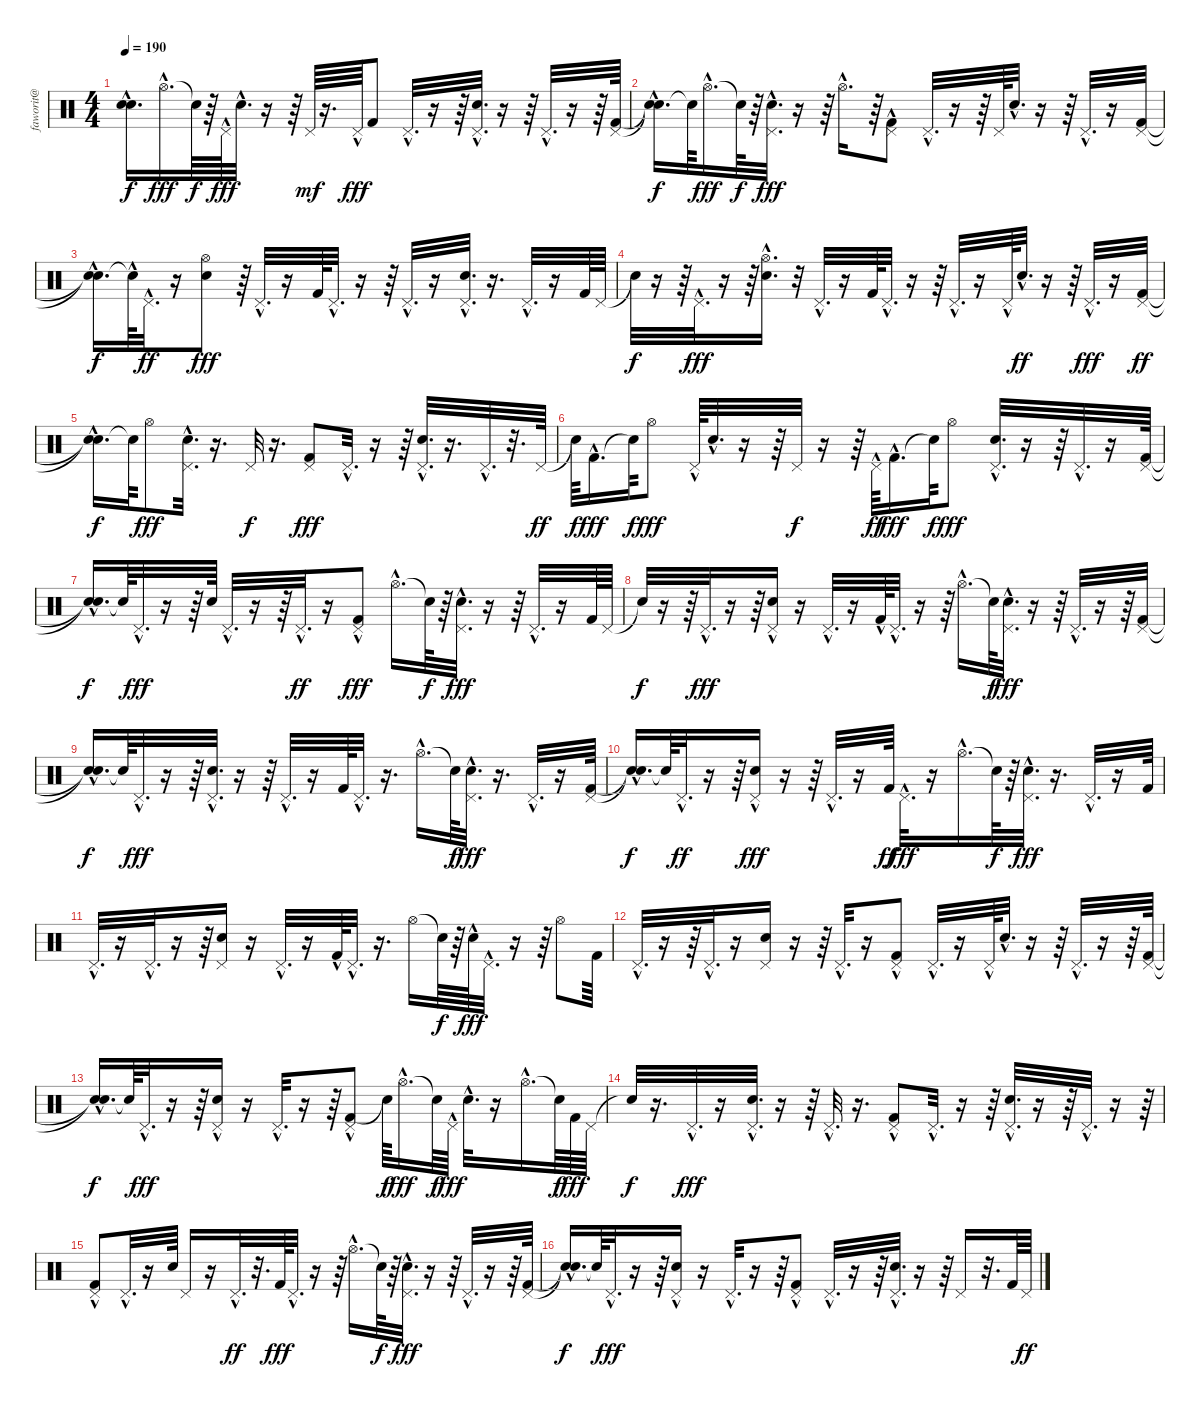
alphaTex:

\track ("faworit@" "faworit@") {instrument percussion}
\staff {score}
\articulation defaults
\ts (4 4)
\tempo 190
\clef neutral
\ks c
("Snare (hit)"{hac t} "Snare (hit)"{t}).16{d dy f} "Hi-Hat (open)"{hac}.16{d dy fff} "Snare (hit)"{t}.64{dy f} r.64 "Pedal Hi-Hat (hit)"{hac}.64{dy fff} "Snare (hit) 2"{hac}.32{d} r.16 r.64 "Pedal Hi-Hat (hit)".64{dy mf} r.16{d} "Pedal Hi-Hat (hit)"{hac}.64{dy fff} "Kick (hit) 2".8 "Pedal Hi-Hat (hit)"{hac}.32{d} r.16 r.64 ("Snare (hit) 2"{hac} "Pedal Hi-Hat (hit)"{hac}).32{d} r.16 r.64 "Pedal Hi-Hat (hit)"{hac}.32{d} r.16 r.64 ("Kick (hit) 2" "Pedal Hi-Hat (hit)").64 |
("Snare (hit)"{hac t} "Snare (hit)"{t}).16{d dy f} "Snare (hit)"{t}.64 "Hi-Hat (open)"{hac}.16{d dy fff} "Snare (hit)"{t}.64{dy f} r.64 ("Pedal Hi-Hat (hit)"{hac} "Snare (hit) 2"{hac}).32{d dy fff} r.16 r.64 "Hi-Hat (open)"{hac}.16{d} r.64 ("Kick (hit) 2" "Pedal Hi-Hat (hit)"{hac}).8 "Pedal Hi-Hat (hit)"{hac}.32{d} r.16 r.64 "Pedal Hi-Hat (hit)".64 "Snare (hit) 2"{hac}.32{d} r.16 r.64 "Pedal Hi-Hat (hit)"{hac}.32{d} r.16 ("Kick (hit) 2" "Pedal Hi-Hat (hit)").32 |
("Snare (hit)"{hac t} "Snare (hit)"{t}).16{d dy f} "Snare (hit)"{hac t}.64 "Pedal Hi-Hat (hit)"{hac}.32{d dy ff} r.16 ("Hi-Hat (open)" "Snare (hit) 2").8{dy fff} r.64 "Pedal Hi-Hat (hit)"{hac}.32{d} r.16 "Kick (hit) 2".64 "Pedal Hi-Hat (hit)"{hac}.32{d} r.16 r.64 "Pedal Hi-Hat (hit)"{hac}.32{d} r.16 ("Snare (hit) 2"{hac} "Pedal Hi-Hat (hit)"{hac}).32{d} r.16{d} "Pedal Hi-Hat (hit)"{hac}.32{d} r.16 "Kick (hit) 2".64 "Pedal Hi-Hat (hit)".64 |
"Snare (hit)"{t}.32{dy f} r.16 r.64 "Pedal Hi-Hat (hit)"{hac}.32{d dy fff} r.16 r.64 ("Snare (hit) 2"{hac} "Hi-Hat (open)"{hac}).16{d} r.32 "Pedal Hi-Hat (hit)"{hac}.32{d} r.16 "Kick (hit) 2".64 "Pedal Hi-Hat (hit)"{hac}.32{d} r.16 r.64 "Pedal Hi-Hat (hit)"{hac}.32{d} r.16 "Pedal Hi-Hat (hit)"{hac}.64 "Snare (hit) 2"{hac}.32{d dy ff} r.16 r.64 "Pedal Hi-Hat (hit)"{hac}.32{d dy fff} r.16 ("Kick (hit) 2" "Pedal Hi-Hat (hit)").32{dy ff} |
("Snare (hit)"{hac t} "Snare (hit)"{t}).16{d dy f} "Snare (hit)"{t}.64 "Hi-Hat (open)".8{dy fff} ("Snare (hit) 2"{hac} "Pedal Hi-Hat (hit)"{hac}).32{d} r.16{d} "Pedal Hi-Hat (hit)".32{dy f} r.16{d} ("Pedal Hi-Hat (hit)" "Kick (hit) 2").8{dy fff} "Pedal Hi-Hat (hit)"{hac}.32{d} r.16 r.64 ("Pedal Hi-Hat (hit)"{hac} "Snare (hit) 2"{hac}).32{d} r.16{d} "Pedal Hi-Hat (hit)"{hac}.32{d} r.32{d} "Pedal Hi-Hat (hit)".64{dy ff} |
"Snare (hit)"{t}.64{dy f} "Kick (hit) 2"{hac}.16{d dy fff} "Snare (hit)"{t}.64{dy f} "Hi-Hat (open)".8{dy fff} "Pedal Hi-Hat (hit)"{hac}.64 "Snare (hit) 2"{hac}.32{d} r.16 r.64 "Pedal Hi-Hat (hit)".32{dy f} r.16 r.64 "Pedal Hi-Hat (hit)"{hac}.64{dy ff} "Kick (hit) 2"{hac}.16{d dy fff} "Snare (hit)"{t}.64{dy f} "Hi-Hat (open)".8{dy fff} ("Snare (hit) 2"{hac} "Pedal Hi-Hat (hit)"{hac}).32{d} r.16 r.64 "Pedal Hi-Hat (hit)"{hac}.32{d} r.16 ("Pedal Hi-Hat (hit)" "Kick (hit) 2").64 |
("Snare (hit)"{t} "Snare (hit)"{hac t}).16{d dy f} "Snare (hit)"{t}.64 "Pedal Hi-Hat (hit)"{hac}.32{d dy fff} r.16 r.64 "Snare (hit) 2".64 "Pedal Hi-Hat (hit)"{hac}.32{d} r.16 r.64 "Pedal Hi-Hat (hit)"{hac}.32{d dy ff} r.16 ("Kick (hit) 2"{hac} "Pedal Hi-Hat (hit)"{hac}).8{dy fff} "Hi-Hat (open)"{hac}.16{d} "Snare (hit)"{t}.64{dy f} r.64 ("Snare (hit) 2"{hac} "Pedal Hi-Hat (hit)"{hac}).32{d dy fff} r.16 r.64 "Pedal Hi-Hat (hit)"{hac}.32{d} r.16 "Kick (hit) 2".64 "Pedal Hi-Hat (hit)".64 |
"Snare (hit)"{t}.32{dy f} r.16 r.64 "Pedal Hi-Hat (hit)"{hac}.32{d dy fff} r.16 r.64 ("Pedal Hi-Hat (hit)"{hac} "Snare (hit) 2").16 r.16 "Pedal Hi-Hat (hit)"{hac}.32{d} r.16 "Kick (hit) 2"{hac}.64 "Pedal Hi-Hat (hit)"{hac}.32{d} r.16 r.64 "Hi-Hat (open)"{hac}.16{d} "Snare (hit)"{t}.64{dy f} ("Snare (hit) 2"{hac} "Pedal Hi-Hat (hit)"{hac}).32{d dy fff} r.16 r.64 "Pedal Hi-Hat (hit)"{hac}.32{d} r.16 r.64 ("Kick (hit) 2" "Pedal Hi-Hat (hit)").32 |
("Snare (hit)"{hac t} "Snare (hit)"{t}).16{d dy f} "Snare (hit)"{t}.64 "Pedal Hi-Hat (hit)"{hac}.32{d dy fff} r.16 r.64 ("Snare (hit) 2"{hac} "Pedal Hi-Hat (hit)"{hac}).32{d} r.16 r.64 "Pedal Hi-Hat (hit)"{hac}.32{d} r.16 "Kick (hit) 2".64 "Pedal Hi-Hat (hit)"{hac}.32{d} r.16{d} "Hi-Hat (open)"{hac}.16{d} "Snare (hit)"{t}.64{dy f} ("Snare (hit) 2"{hac} "Pedal Hi-Hat (hit)"{hac}).32{d dy fff} r.16{d} "Pedal Hi-Hat (hit)"{hac}.32{d} r.16 ("Kick (hit) 2" "Pedal Hi-Hat (hit)").64 |
("Snare (hit)"{hac t} "Snare (hit)"{t}).16{d dy f} "Snare (hit)"{t}.64 "Pedal Hi-Hat (hit)"{hac}.32{d dy ff} r.16 r.64 ("Pedal Hi-Hat (hit)" "Snare (hit) 2"{hac}).16{dy fff} r.16 r.64 "Pedal Hi-Hat (hit)"{hac}.32{d} r.16 "Kick (hit) 2".64{dy ff} "Pedal Hi-Hat (hit)"{hac}.32{d dy fff} r.16 "Hi-Hat (open)"{hac}.16{d} "Snare (hit)"{t}.64{dy f} r.64 ("Snare (hit) 2"{hac} "Pedal Hi-Hat (hit)"{hac}).32{d dy fff} r.16{d} "Pedal Hi-Hat (hit)"{hac}.32{d} r.16 "Kick (hit) 2".64 |
"Pedal Hi-Hat (hit)"{hac}.32{d} r.16 "Pedal Hi-Hat (hit)"{hac}.32{d} r.16 r.64 ("Snare (hit) 2" "Pedal Hi-Hat (hit)").16 r.16 "Pedal Hi-Hat (hit)"{hac}.32{d} r.16 "Kick (hit) 2"{hac}.64 "Pedal Hi-Hat (hit)"{hac}.32{d} r.16{d} "Hi-Hat (open)".16 "Snare (hit)"{t}.64{dy f} r.64 "Snare (hit) 2"{hac}.64{dy fff} "Pedal Hi-Hat (hit)"{hac}.32{d} r.16 r.64 "Hi-Hat (open)".8 "Kick (hit) 2".64 |
"Pedal Hi-Hat (hit)"{hac}.32{d} r.16 r.64 "Pedal Hi-Hat (hit)"{hac}.32{d} r.16 ("Pedal Hi-Hat (hit)" "Snare (hit) 2").16 r.16 r.64 "Pedal Hi-Hat (hit)"{hac}.32{d} r.16 ("Kick (hit) 2" "Pedal Hi-Hat (hit)"{hac}).8 "Pedal Hi-Hat (hit)"{hac}.32{d} r.16 "Pedal Hi-Hat (hit)"{hac}.64 "Snare (hit) 2"{hac}.32{d} r.16 r.64 "Pedal Hi-Hat (hit)"{hac}.32{d} r.16 r.64 ("Pedal Hi-Hat (hit)" "Kick (hit) 2").64 |
("Snare (hit)"{t} "Snare (hit)"{hac t}).16{d dy f} "Snare (hit)"{t}.64 "Pedal Hi-Hat (hit)"{hac}.32{d dy fff} r.16 r.64 ("Snare (hit) 2" "Pedal Hi-Hat (hit)"{hac}).16 r.16 "Pedal Hi-Hat (hit)"{hac}.32{d} r.16 r.64 ("Kick (hit) 2" "Pedal Hi-Hat (hit)"{hac}).8 "Snare (hit)"{t}.64{dy f} "Hi-Hat (open)"{hac}.16{d dy fff} "Snare (hit)"{t}.64{dy f} "Pedal Hi-Hat (hit)"{hac}.64{dy fff} "Snare (hit) 2"{hac}.32{d} r.16 "Hi-Hat (open)"{hac}.16{d} "Snare (hit)"{t}.64{dy f} "Kick (hit) 2".64{dy fff} "Pedal Hi-Hat (hit)".64 |
"Snare (hit)"{t}.32{dy f} r.16{d} "Pedal Hi-Hat (hit)"{hac}.32{d dy fff} r.16 ("Pedal Hi-Hat (hit)"{hac} "Snare (hit) 2"{hac}).32{d} r.16 r.64 "Pedal Hi-Hat (hit)"{hac}.32{d} r.16{d} ("Pedal Hi-Hat (hit)"{hac} "Kick (hit) 2").8 "Pedal Hi-Hat (hit)"{hac}.32{d} r.16 r.64 ("Snare (hit) 2"{hac} "Pedal Hi-Hat (hit)"{hac}).32{d} r.16 r.64 "Pedal Hi-Hat (hit)"{hac}.32{d} r.16 r.64 |
("Kick (hit) 2"{hac} "Pedal Hi-Hat (hit)").8 "Pedal Hi-Hat (hit)"{hac}.32{d} r.16 "Snare (hit) 2".64 "Pedal Hi-Hat (hit)".16 r.16 "Pedal Hi-Hat (hit)"{hac}.32{d dy ff} r.32{d} "Kick (hit) 2".64{dy fff} "Pedal Hi-Hat (hit)"{hac}.32{d} r.16 r.64 "Hi-Hat (open)"{hac}.16{d} "Snare (hit)"{t}.64{dy f} r.64 ("Pedal Hi-Hat (hit)"{hac} "Snare (hit) 2"{hac}).32{d dy fff} r.16 r.64 "Pedal Hi-Hat (hit)"{hac}.32{d} r.16 r.64 ("Pedal Hi-Hat (hit)" "Kick (hit) 2").64 |
("Snare (hit)"{hac t} "Snare (hit)"{hac t}).16{d dy f} "Snare (hit)"{t}.64 "Pedal Hi-Hat (hit)"{hac}.32{d dy fff} r.16 r.64 ("Pedal Hi-Hat (hit)"{hac} "Snare (hit) 2").16 r.16 "Pedal Hi-Hat (hit)"{hac}.32{d} r.16 r.64 ("Kick (hit) 2" "Pedal Hi-Hat (hit)"{hac}).8 "Pedal Hi-Hat (hit)"{hac}.32{d} r.16 r.64 ("Snare (hit) 2"{hac} "Pedal Hi-Hat (hit)"{hac}).32{d} r.16 r.64 "Pedal Hi-Hat (hit)".16 r.32{d} "Kick (hit) 2".64 "Pedal Hi-Hat (hit)".64{dy ff}
